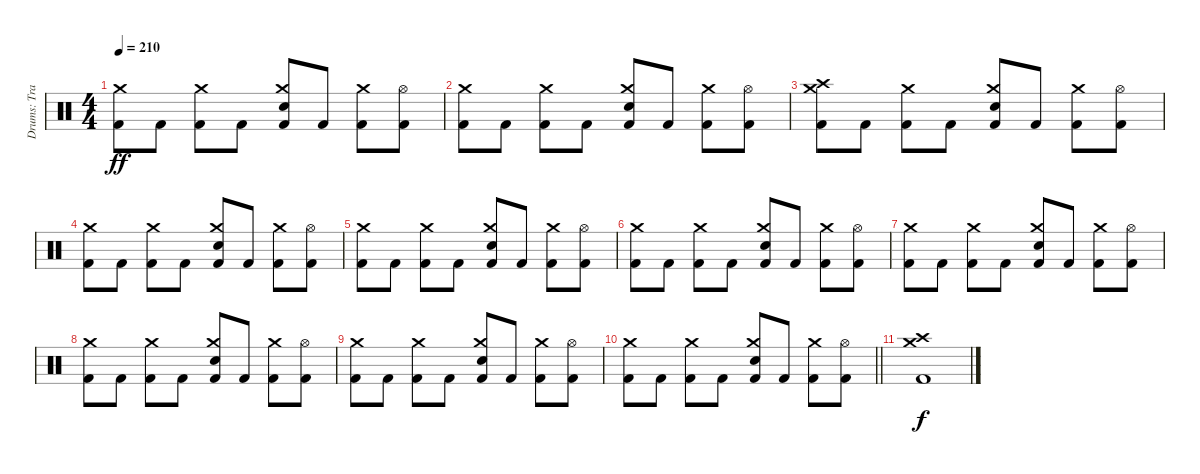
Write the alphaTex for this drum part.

\track ("Drums: Trav Clarke" "Drums: Tra") {instrument percussion}
\staff {score}
\articulation defaults
\ts (4 4)
\tempo 210
\clef neutral
\ks c
("Kick (hit) 2" "Crash medium (hit)").8{dy ff} "Kick (hit) 2".8 ("Kick (hit) 2" "Crash medium (hit)").8 "Kick (hit) 2".8 ("Kick (hit) 2" "Snare (hit) 2" "Crash medium (hit)").8 "Kick (hit) 2".8 ("Kick (hit) 2" "Crash medium (hit)").8 ("Kick (hit) 2" "Hi-Hat (open)").8 |
("Kick (hit) 2" "Crash medium (hit)").8 "Kick (hit) 2".8 ("Kick (hit) 2" "Crash medium (hit)").8 "Kick (hit) 2".8 ("Kick (hit) 2" "Snare (hit) 2" "Crash medium (hit)").8 "Kick (hit) 2".8 ("Kick (hit) 2" "Crash medium (hit)").8 ("Kick (hit) 2" "Hi-Hat (open)").8 |
("Kick (hit) 2" "Crash high (hit)" "Crash medium (hit)").8 "Kick (hit) 2".8 ("Kick (hit) 2" "Crash medium (hit)").8 "Kick (hit) 2".8 ("Kick (hit) 2" "Snare (hit) 2" "Crash medium (hit)").8 "Kick (hit) 2".8 ("Kick (hit) 2" "Crash medium (hit)").8 ("Kick (hit) 2" "Hi-Hat (open)").8 |
("Kick (hit) 2" "Crash medium (hit)").8 "Kick (hit) 2".8 ("Kick (hit) 2" "Crash medium (hit)").8 "Kick (hit) 2".8 ("Kick (hit) 2" "Snare (hit) 2" "Crash medium (hit)").8 "Kick (hit) 2".8 ("Kick (hit) 2" "Crash medium (hit)").8 ("Kick (hit) 2" "Hi-Hat (open)").8 |
("Kick (hit) 2" "Crash medium (hit)").8 "Kick (hit) 2".8 ("Kick (hit) 2" "Crash medium (hit)").8 "Kick (hit) 2".8 ("Kick (hit) 2" "Snare (hit) 2" "Crash medium (hit)").8 "Kick (hit) 2".8 ("Kick (hit) 2" "Crash medium (hit)").8 ("Kick (hit) 2" "Hi-Hat (open)").8 |
("Kick (hit) 2" "Crash medium (hit)").8 "Kick (hit) 2".8 ("Kick (hit) 2" "Crash medium (hit)").8 "Kick (hit) 2".8 ("Kick (hit) 2" "Snare (hit) 2" "Crash medium (hit)").8 "Kick (hit) 2".8 ("Kick (hit) 2" "Crash medium (hit)").8 ("Kick (hit) 2" "Hi-Hat (open)").8 |
("Kick (hit) 2" "Crash medium (hit)").8 "Kick (hit) 2".8 ("Kick (hit) 2" "Crash medium (hit)").8 "Kick (hit) 2".8 ("Kick (hit) 2" "Snare (hit) 2" "Crash medium (hit)").8 "Kick (hit) 2".8 ("Kick (hit) 2" "Crash medium (hit)").8 ("Kick (hit) 2" "Hi-Hat (open)").8 |
("Kick (hit) 2" "Crash medium (hit)").8 "Kick (hit) 2".8 ("Kick (hit) 2" "Crash medium (hit)").8 "Kick (hit) 2".8 ("Kick (hit) 2" "Snare (hit) 2" "Crash medium (hit)").8 "Kick (hit) 2".8 ("Kick (hit) 2" "Crash medium (hit)").8 ("Kick (hit) 2" "Hi-Hat (open)").8 |
("Kick (hit) 2" "Crash medium (hit)").8 "Kick (hit) 2".8 ("Kick (hit) 2" "Crash medium (hit)").8 "Kick (hit) 2".8 ("Kick (hit) 2" "Snare (hit) 2" "Crash medium (hit)").8 "Kick (hit) 2".8 ("Kick (hit) 2" "Crash medium (hit)").8 ("Kick (hit) 2" "Hi-Hat (open)").8 |
\barLineRight lightlight
("Kick (hit) 2" "Crash medium (hit)").8 "Kick (hit) 2".8 ("Kick (hit) 2" "Crash medium (hit)").8 "Kick (hit) 2".8 ("Kick (hit) 2" "Snare (hit) 2" "Crash medium (hit)").8 "Kick (hit) 2".8 ("Kick (hit) 2" "Crash medium (hit)").8 ("Kick (hit) 2" "Hi-Hat (open)").8 |
("Kick (hit) 2" "Crash high (hit)" "Crash medium (hit)").1{dy f}
